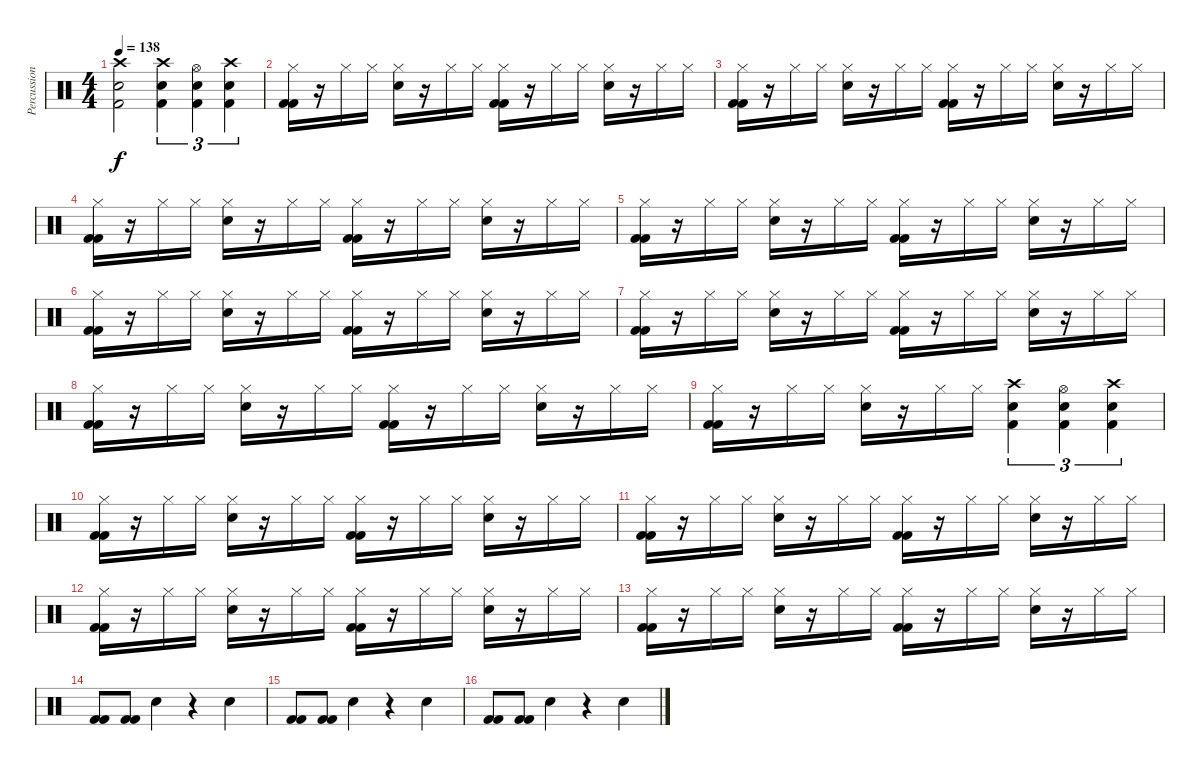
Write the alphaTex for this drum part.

\track ("Percussion" "Percussion") {instrument percussion}
\staff {score}
\articulation defaults
\ts (4 4)
\tempo 138
\clef neutral
\ks c
("Crash high (hit)" "Snare (hit) 2" "Kick (hit) 2").2{dy f} ("Crash high (hit)" "Snare (hit) 2" "Kick (hit) 2").4{tu (3 2)} ("Hi-Hat (open)" "Snare (hit) 2" "Kick (hit) 2").4{tu (3 2)} ("Crash high (hit)" "Snare (hit) 2" "Kick (hit) 2").4{tu (3 2)} |
("Hi-Hat (closed)" "Kick (hit) 2" "Kick (hit) 2").16 r.16 "Hi-Hat (closed)".16 "Hi-Hat (closed)".16 ("Hi-Hat (closed)" "Snare (hit) 2").16 r.16 "Hi-Hat (closed)".16 "Hi-Hat (closed)".16 ("Hi-Hat (closed)" "Kick (hit) 2" "Kick (hit) 2").16 r.16 "Hi-Hat (closed)".16 "Hi-Hat (closed)".16 ("Hi-Hat (closed)" "Snare (hit) 2").16 r.16 "Hi-Hat (closed)".16 "Hi-Hat (closed)".16 |
("Hi-Hat (closed)" "Kick (hit) 2" "Kick (hit) 2").16 r.16 "Hi-Hat (closed)".16 "Hi-Hat (closed)".16 ("Hi-Hat (closed)" "Snare (hit) 2").16 r.16 "Hi-Hat (closed)".16 "Hi-Hat (closed)".16 ("Hi-Hat (closed)" "Kick (hit) 2" "Kick (hit) 2").16 r.16 "Hi-Hat (closed)".16 "Hi-Hat (closed)".16 ("Hi-Hat (closed)" "Snare (hit) 2").16 r.16 "Hi-Hat (closed)".16 "Hi-Hat (closed)".16 |
("Hi-Hat (closed)" "Kick (hit) 2" "Kick (hit) 2").16 r.16 "Hi-Hat (closed)".16 "Hi-Hat (closed)".16 ("Hi-Hat (closed)" "Snare (hit) 2").16 r.16 "Hi-Hat (closed)".16 "Hi-Hat (closed)".16 ("Hi-Hat (closed)" "Kick (hit) 2" "Kick (hit) 2").16 r.16 "Hi-Hat (closed)".16 "Hi-Hat (closed)".16 ("Hi-Hat (closed)" "Snare (hit) 2").16 r.16 "Hi-Hat (closed)".16 "Hi-Hat (closed)".16 |
("Hi-Hat (closed)" "Kick (hit) 2" "Kick (hit) 2").16 r.16 "Hi-Hat (closed)".16 "Hi-Hat (closed)".16 ("Hi-Hat (closed)" "Snare (hit) 2").16 r.16 "Hi-Hat (closed)".16 "Hi-Hat (closed)".16 ("Hi-Hat (closed)" "Kick (hit) 2" "Kick (hit) 2").16 r.16 "Hi-Hat (closed)".16 "Hi-Hat (closed)".16 ("Hi-Hat (closed)" "Snare (hit) 2").16 r.16 "Hi-Hat (closed)".16 "Hi-Hat (closed)".16 |
("Hi-Hat (closed)" "Kick (hit) 2" "Kick (hit) 2").16 r.16 "Hi-Hat (closed)".16 "Hi-Hat (closed)".16 ("Hi-Hat (closed)" "Snare (hit) 2").16 r.16 "Hi-Hat (closed)".16 "Hi-Hat (closed)".16 ("Hi-Hat (closed)" "Kick (hit) 2" "Kick (hit) 2").16 r.16 "Hi-Hat (closed)".16 "Hi-Hat (closed)".16 ("Hi-Hat (closed)" "Snare (hit) 2").16 r.16 "Hi-Hat (closed)".16 "Hi-Hat (closed)".16 |
("Hi-Hat (closed)" "Kick (hit) 2" "Kick (hit) 2").16 r.16 "Hi-Hat (closed)".16 "Hi-Hat (closed)".16 ("Hi-Hat (closed)" "Snare (hit) 2").16 r.16 "Hi-Hat (closed)".16 "Hi-Hat (closed)".16 ("Hi-Hat (closed)" "Kick (hit) 2" "Kick (hit) 2").16 r.16 "Hi-Hat (closed)".16 "Hi-Hat (closed)".16 ("Hi-Hat (closed)" "Snare (hit) 2").16 r.16 "Hi-Hat (closed)".16 "Hi-Hat (closed)".16 |
("Hi-Hat (closed)" "Kick (hit) 2" "Kick (hit) 2").16 r.16 "Hi-Hat (closed)".16 "Hi-Hat (closed)".16 ("Hi-Hat (closed)" "Snare (hit) 2").16 r.16 "Hi-Hat (closed)".16 "Hi-Hat (closed)".16 ("Hi-Hat (closed)" "Kick (hit) 2" "Kick (hit) 2").16 r.16 "Hi-Hat (closed)".16 "Hi-Hat (closed)".16 ("Hi-Hat (closed)" "Snare (hit) 2").16 r.16 "Hi-Hat (closed)".16 "Hi-Hat (closed)".16 |
("Hi-Hat (closed)" "Kick (hit) 2" "Kick (hit) 2").16 r.16 "Hi-Hat (closed)".16 "Hi-Hat (closed)".16 ("Hi-Hat (closed)" "Snare (hit) 2").16 r.16 "Hi-Hat (closed)".16 "Hi-Hat (closed)".16 ("Crash high (hit)" "Snare (hit) 2" "Kick (hit) 2").4{tu (3 2)} ("Hi-Hat (open)" "Snare (hit) 2" "Kick (hit) 2").4{tu (3 2)} ("Crash high (hit)" "Snare (hit) 2" "Kick (hit) 2").4{tu (3 2)} |
("Hi-Hat (closed)" "Kick (hit) 2" "Kick (hit) 2").16 r.16 "Hi-Hat (closed)".16 "Hi-Hat (closed)".16 ("Hi-Hat (closed)" "Snare (hit) 2").16 r.16 "Hi-Hat (closed)".16 "Hi-Hat (closed)".16 ("Hi-Hat (closed)" "Kick (hit) 2" "Kick (hit) 2").16 r.16 "Hi-Hat (closed)".16 "Hi-Hat (closed)".16 ("Hi-Hat (closed)" "Snare (hit) 2").16 r.16 "Hi-Hat (closed)".16 "Hi-Hat (closed)".16 |
("Hi-Hat (closed)" "Kick (hit) 2" "Kick (hit) 2").16 r.16 "Hi-Hat (closed)".16 "Hi-Hat (closed)".16 ("Hi-Hat (closed)" "Snare (hit) 2").16 r.16 "Hi-Hat (closed)".16 "Hi-Hat (closed)".16 ("Hi-Hat (closed)" "Kick (hit) 2" "Kick (hit) 2").16 r.16 "Hi-Hat (closed)".16 "Hi-Hat (closed)".16 ("Hi-Hat (closed)" "Snare (hit) 2").16 r.16 "Hi-Hat (closed)".16 "Hi-Hat (closed)".16 |
("Hi-Hat (closed)" "Kick (hit) 2" "Kick (hit) 2").16 r.16 "Hi-Hat (closed)".16 "Hi-Hat (closed)".16 ("Hi-Hat (closed)" "Snare (hit) 2").16 r.16 "Hi-Hat (closed)".16 "Hi-Hat (closed)".16 ("Hi-Hat (closed)" "Kick (hit) 2" "Kick (hit) 2").16 r.16 "Hi-Hat (closed)".16 "Hi-Hat (closed)".16 ("Hi-Hat (closed)" "Snare (hit) 2").16 r.16 "Hi-Hat (closed)".16 "Hi-Hat (closed)".16 |
("Hi-Hat (closed)" "Kick (hit) 2" "Kick (hit) 2").16 r.16 "Hi-Hat (closed)".16 "Hi-Hat (closed)".16 ("Hi-Hat (closed)" "Snare (hit) 2").16 r.16 "Hi-Hat (closed)".16 "Hi-Hat (closed)".16 ("Hi-Hat (closed)" "Kick (hit) 2" "Kick (hit) 2").16 r.16 "Hi-Hat (closed)".16 "Hi-Hat (closed)".16 ("Hi-Hat (closed)" "Snare (hit) 2").16 r.16 "Hi-Hat (closed)".16 "Hi-Hat (closed)".16 |
("Kick (hit) 2" "Kick (hit) 2").8 ("Kick (hit) 2" "Kick (hit) 2").8 "Snare (hit) 2".4 r.4 "Snare (hit) 2".4 |
("Kick (hit) 2" "Kick (hit) 2").8 ("Kick (hit) 2" "Kick (hit) 2").8 "Snare (hit) 2".4 r.4 "Snare (hit) 2".4 |
("Kick (hit) 2" "Kick (hit) 2").8 ("Kick (hit) 2" "Kick (hit) 2").8 "Snare (hit) 2".4 r.4 "Snare (hit) 2".4
